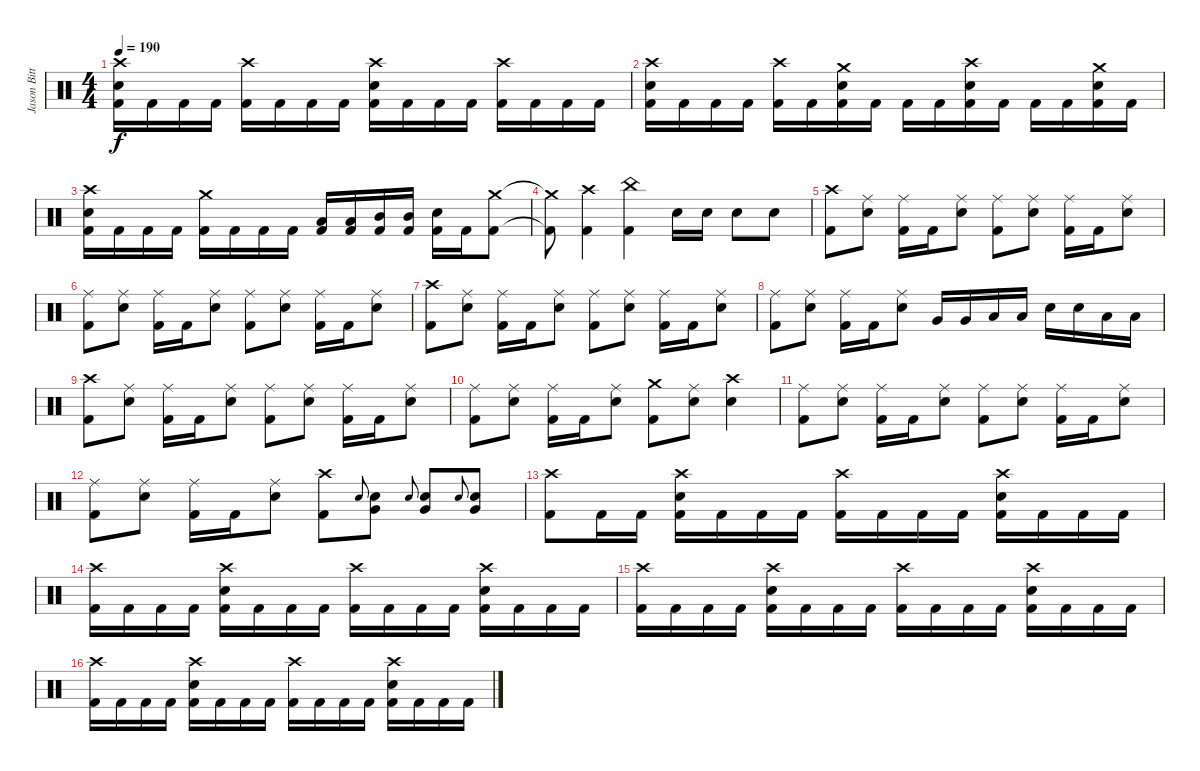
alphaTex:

\track ("Jason Bittner" "Jason Bitt") {instrument percussion}
\staff {score}
\articulation defaults
\ts (4 4)
\tempo 190
\clef neutral
\ks c
("Crash high (hit)" "Electric Snare (hit)" "Kick (hit) 2").16{dy f} "Kick (hit) 2".16 "Kick (hit) 2".16 "Kick (hit) 2".16 ("Crash high (hit)" "Kick (hit) 2").16 "Kick (hit) 2".16 "Kick (hit) 2".16 "Kick (hit) 2".16 ("Crash high (hit)" "Electric Snare (hit)" "Kick (hit) 2").16 "Kick (hit) 2".16 "Kick (hit) 2".16 "Kick (hit) 2".16 ("Crash high (hit)" "Kick (hit) 2").16 "Kick (hit) 2".16 "Kick (hit) 2".16 "Kick (hit) 2".16 |
("Crash high (hit)" "Electric Snare (hit)" "Kick (hit) 2").16 "Kick (hit) 2".16 "Kick (hit) 2".16 "Kick (hit) 2".16 ("Crash high (hit)" "Kick (hit) 2").16 "Kick (hit) 2".16 ("Crash medium (hit)" "Electric Snare (hit)" "Kick (hit) 2").16 "Kick (hit) 2".16 "Kick (hit) 2".16 "Kick (hit) 2".16 ("Crash high (hit)" "Electric Snare (hit)" "Kick (hit) 2").16 "Kick (hit) 2".16 "Kick (hit) 2".16 "Kick (hit) 2".16 ("Crash medium (hit)" "Electric Snare (hit)" "Kick (hit) 2").16 "Kick (hit) 2".16 |
("Crash high (hit)" "Electric Snare (hit)" "Kick (hit) 2").16 "Kick (hit) 2".16 "Kick (hit) 2".16 "Kick (hit) 2".16 ("Crash medium (hit)" "Kick (hit) 2").16 "Kick (hit) 2".16 "Kick (hit) 2".16 "Kick (hit) 2".16 ("Low Tom (hit)" "Kick (hit) 2").16 ("Low Tom (hit)" "Kick (hit) 2").16 ("Mid Tom (hit)" "Kick (hit) 2").16 ("Mid Tom (hit)" "Kick (hit) 2").16 ("Electric Snare (hit)" "Kick (hit) 2").16 "Kick (hit) 2".16 ("Crash medium (hit)" "Kick (hit) 2").8 |
("Crash medium (hit)"{t} "Kick (hit) 2"{t}).8 ("Crash high (hit)" "Kick (hit) 2").4 ("China (hit)" "Kick (hit) 2").4 "Electric Snare (hit)".16 "Electric Snare (hit)".16 "Electric Snare (hit)".8 "Electric Snare (hit)".8 |
("Crash high (hit)" "Kick (hit) 2").8 ("Ride (middle)" "Electric Snare (hit)").8 ("Ride (middle)" "Kick (hit) 2").16 "Kick (hit) 2".16 ("Ride (middle)" "Electric Snare (hit)").8 ("Ride (middle)" "Kick (hit) 2").8 ("Ride (middle)" "Electric Snare (hit)").8 ("Ride (middle)" "Kick (hit) 2").16 "Kick (hit) 2".16 ("Ride (middle)" "Electric Snare (hit)").8 |
("Ride (middle)" "Kick (hit) 2").8 ("Ride (middle)" "Electric Snare (hit)").8 ("Ride (middle)" "Kick (hit) 2").16 "Kick (hit) 2".16 ("Ride (middle)" "Electric Snare (hit)").8 ("Ride (middle)" "Kick (hit) 2").8 ("Ride (middle)" "Electric Snare (hit)").8 ("Ride (middle)" "Kick (hit) 2").16 "Kick (hit) 2".16 ("Ride (middle)" "Electric Snare (hit)").8 |
("Crash high (hit)" "Kick (hit) 2").8 ("Ride (middle)" "Electric Snare (hit)").8 ("Ride (middle)" "Kick (hit) 2").16 "Kick (hit) 2".16 ("Ride (middle)" "Electric Snare (hit)").8 ("Ride (middle)" "Kick (hit) 2").8 ("Ride (middle)" "Electric Snare (hit)").8 ("Ride (middle)" "Kick (hit) 2").16 "Kick (hit) 2".16 ("Ride (middle)" "Electric Snare (hit)").8 |
("Ride (middle)" "Kick (hit) 2").8 ("Ride (middle)" "Electric Snare (hit)").8 ("Ride (middle)" "Kick (hit) 2").16 "Kick (hit) 2".16 ("Ride (middle)" "Electric Snare (hit)").8 "Very Low Tom (hit)".16 "Very Low Tom (hit)".16 "Low Tom (hit)".16 "Low Tom (hit)".16 "Electric Snare (hit)".16 "Electric Snare (hit)".16 "Low Tom (hit)".16 "Low Tom (hit)".16 |
("Crash high (hit)" "Kick (hit) 2").8 ("Ride (middle)" "Electric Snare (hit)").8 ("Ride (middle)" "Kick (hit) 2").16 "Kick (hit) 2".16 ("Ride (middle)" "Electric Snare (hit)").8 ("Ride (middle)" "Kick (hit) 2").8 ("Ride (middle)" "Electric Snare (hit)").8 ("Ride (middle)" "Kick (hit) 2").16 "Kick (hit) 2".16 ("Ride (middle)" "Electric Snare (hit)").8 |
("Ride (middle)" "Kick (hit) 2").8 ("Ride (middle)" "Electric Snare (hit)").8 ("Ride (middle)" "Kick (hit) 2").16 "Kick (hit) 2".16 ("Ride (middle)" "Electric Snare (hit)").8 ("Crash medium (hit)" "Kick (hit) 2").8 ("Ride (middle)" "Electric Snare (hit)").8 ("Crash high (hit)" "Electric Snare (hit)").4 |
("Ride (middle)" "Kick (hit) 2").8 ("Ride (middle)" "Electric Snare (hit)").8 ("Ride (middle)" "Kick (hit) 2").16 "Kick (hit) 2".16 ("Ride (middle)" "Electric Snare (hit)").8 ("Ride (middle)" "Kick (hit) 2").8 ("Ride (middle)" "Electric Snare (hit)").8 ("Ride (middle)" "Kick (hit) 2").16 "Kick (hit) 2".16 ("Ride (middle)" "Electric Snare (hit)").8 |
("Ride (middle)" "Kick (hit) 2").8 ("Ride (middle)" "Electric Snare (hit)").8 ("Ride (middle)" "Kick (hit) 2").16 "Kick (hit) 2".16 ("Ride (middle)" "Electric Snare (hit)").8 ("Crash high (hit)" "Kick (hit) 2").8 "Electric Snare (hit)".8{gr onbeat} ("Electric Snare (hit)" "Very Low Tom (hit)").8 "Electric Snare (hit)".8{gr onbeat} ("Electric Snare (hit)" "Very Low Tom (hit)").8 "Electric Snare (hit)".8{gr onbeat} ("Electric Snare (hit)" "Very Low Tom (hit)").8 |
("Crash high (hit)" "Kick (hit) 2").8 "Kick (hit) 2".16 "Kick (hit) 2".16 ("Crash high (hit)" "Electric Snare (hit)" "Kick (hit) 2").16 "Kick (hit) 2".16 "Kick (hit) 2".16 "Kick (hit) 2".16 ("Crash high (hit)" "Kick (hit) 2").16 "Kick (hit) 2".16 "Kick (hit) 2".16 "Kick (hit) 2".16 ("Crash high (hit)" "Electric Snare (hit)" "Kick (hit) 2").16 "Kick (hit) 2".16 "Kick (hit) 2".16 "Kick (hit) 2".16 |
("Crash high (hit)" "Kick (hit) 2").16 "Kick (hit) 2".16 "Kick (hit) 2".16 "Kick (hit) 2".16 ("Crash high (hit)" "Electric Snare (hit)" "Kick (hit) 2").16 "Kick (hit) 2".16 "Kick (hit) 2".16 "Kick (hit) 2".16 ("Crash high (hit)" "Kick (hit) 2").16 "Kick (hit) 2".16 "Kick (hit) 2".16 "Kick (hit) 2".16 ("Crash high (hit)" "Electric Snare (hit)" "Kick (hit) 2").16 "Kick (hit) 2".16 "Kick (hit) 2".16 "Kick (hit) 2".16 |
("Crash high (hit)" "Kick (hit) 2").16 "Kick (hit) 2".16 "Kick (hit) 2".16 "Kick (hit) 2".16 ("Crash high (hit)" "Electric Snare (hit)" "Kick (hit) 2").16 "Kick (hit) 2".16 "Kick (hit) 2".16 "Kick (hit) 2".16 ("Crash high (hit)" "Kick (hit) 2").16 "Kick (hit) 2".16 "Kick (hit) 2".16 "Kick (hit) 2".16 ("Crash high (hit)" "Electric Snare (hit)" "Kick (hit) 2").16 "Kick (hit) 2".16 "Kick (hit) 2".16 "Kick (hit) 2".16 |
("Crash high (hit)" "Kick (hit) 2").16 "Kick (hit) 2".16 "Kick (hit) 2".16 "Kick (hit) 2".16 ("Crash high (hit)" "Electric Snare (hit)" "Kick (hit) 2").16 "Kick (hit) 2".16 "Kick (hit) 2".16 "Kick (hit) 2".16 ("Crash high (hit)" "Kick (hit) 2").16 "Kick (hit) 2".16 "Kick (hit) 2".16 "Kick (hit) 2".16 ("Crash high (hit)" "Electric Snare (hit)" "Kick (hit) 2").16 "Kick (hit) 2".16 "Kick (hit) 2".16 "Kick (hit) 2".16
